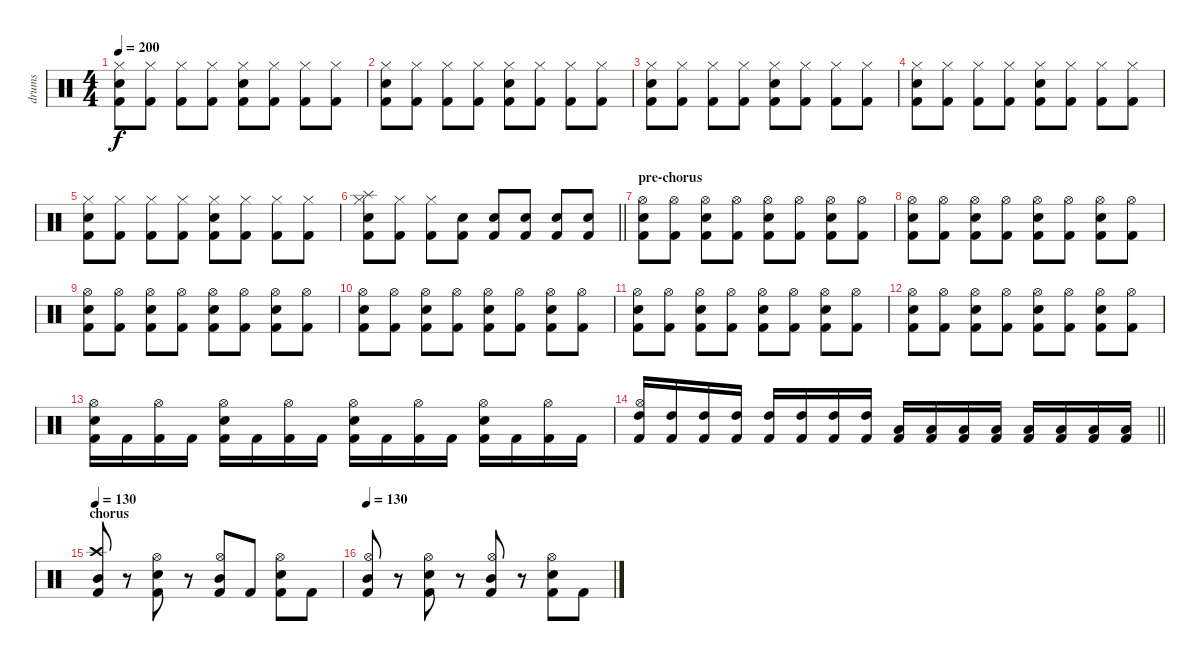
\track ("drums" "drums") {instrument percussion}
\staff {score}
\articulation defaults
\ts (4 4)
\tempo 200
\clef neutral
\ks c
("Hi-Hat (closed)" "Snare (hit) 2" "Kick (hit) 2").8{dy f} ("Hi-Hat (closed)" "Kick (hit) 2").8 ("Hi-Hat (closed)" "Kick (hit) 2").8 ("Hi-Hat (closed)" "Kick (hit) 2").8 ("Hi-Hat (closed)" "Snare (hit) 2" "Kick (hit) 2").8 ("Hi-Hat (closed)" "Kick (hit) 2").8 ("Hi-Hat (closed)" "Kick (hit) 2").8 ("Hi-Hat (closed)" "Kick (hit) 2").8 |
("Hi-Hat (closed)" "Snare (hit) 2" "Kick (hit) 2").8 ("Hi-Hat (closed)" "Kick (hit) 2").8 ("Hi-Hat (closed)" "Kick (hit) 2").8 ("Hi-Hat (closed)" "Kick (hit) 2").8 ("Hi-Hat (closed)" "Snare (hit) 2" "Kick (hit) 2").8 ("Hi-Hat (closed)" "Kick (hit) 2").8 ("Hi-Hat (closed)" "Kick (hit) 2").8 ("Hi-Hat (closed)" "Kick (hit) 2").8 |
("Hi-Hat (closed)" "Snare (hit) 2" "Kick (hit) 2").8 ("Hi-Hat (closed)" "Kick (hit) 2").8 ("Hi-Hat (closed)" "Kick (hit) 2").8 ("Hi-Hat (closed)" "Kick (hit) 2").8 ("Hi-Hat (closed)" "Snare (hit) 2" "Kick (hit) 2").8 ("Hi-Hat (closed)" "Kick (hit) 2").8 ("Hi-Hat (closed)" "Kick (hit) 2").8 ("Hi-Hat (closed)" "Kick (hit) 2").8 |
("Hi-Hat (closed)" "Snare (hit) 2" "Kick (hit) 2").8 ("Hi-Hat (closed)" "Kick (hit) 2").8 ("Hi-Hat (closed)" "Kick (hit) 2").8 ("Hi-Hat (closed)" "Kick (hit) 2").8 ("Hi-Hat (closed)" "Snare (hit) 2" "Kick (hit) 2").8 ("Hi-Hat (closed)" "Kick (hit) 2").8 ("Hi-Hat (closed)" "Kick (hit) 2").8 ("Hi-Hat (closed)" "Kick (hit) 2").8 |
("Hi-Hat (closed)" "Snare (hit) 2" "Kick (hit) 2").8 ("Hi-Hat (closed)" "Kick (hit) 2").8 ("Hi-Hat (closed)" "Kick (hit) 2").8 ("Hi-Hat (closed)" "Kick (hit) 2").8 ("Hi-Hat (closed)" "Snare (hit) 2" "Kick (hit) 2").8 ("Hi-Hat (closed)" "Kick (hit) 2").8 ("Hi-Hat (closed)" "Kick (hit) 2").8 ("Hi-Hat (closed)" "Kick (hit) 2").8 |
\barLineRight lightlight
("Splash (hit)" "Hi-Hat (closed)" "Snare (hit) 2" "Kick (hit) 2").8 ("Hi-Hat (closed)" "Kick (hit) 2").8 ("Hi-Hat (closed)" "Kick (hit) 2").8 ("Snare (hit) 2" "Kick (hit) 2").8 ("Snare (hit) 2" "Kick (hit) 2").8 ("Snare (hit) 2" "Kick (hit) 2").8 ("Snare (hit) 2" "Kick (hit) 2").8 ("Snare (hit) 2" "Kick (hit) 2").8 |
\section ("" "pre-chorus")
("Hi-Hat (open)" "Snare (hit) 2" "Kick (hit) 2").8 ("Hi-Hat (open)" "Kick (hit) 2").8 ("Hi-Hat (open)" "Snare (hit) 2" "Kick (hit) 2").8 ("Hi-Hat (open)" "Kick (hit) 2").8 ("Hi-Hat (open)" "Snare (hit) 2" "Kick (hit) 2").8 ("Hi-Hat (open)" "Kick (hit) 2").8 ("Hi-Hat (open)" "Snare (hit) 2" "Kick (hit) 2").8 ("Hi-Hat (open)" "Kick (hit) 2").8 |
("Hi-Hat (open)" "Snare (hit) 2" "Kick (hit) 2").8 ("Hi-Hat (open)" "Kick (hit) 2").8 ("Hi-Hat (open)" "Snare (hit) 2" "Kick (hit) 2").8 ("Hi-Hat (open)" "Kick (hit) 2").8 ("Hi-Hat (open)" "Snare (hit) 2" "Kick (hit) 2").8 ("Hi-Hat (open)" "Kick (hit) 2").8 ("Hi-Hat (open)" "Snare (hit) 2" "Kick (hit) 2").8 ("Hi-Hat (open)" "Kick (hit) 2").8 |
("Hi-Hat (open)" "Snare (hit) 2" "Kick (hit) 2").8 ("Hi-Hat (open)" "Kick (hit) 2").8 ("Hi-Hat (open)" "Snare (hit) 2" "Kick (hit) 2").8 ("Hi-Hat (open)" "Kick (hit) 2").8 ("Hi-Hat (open)" "Snare (hit) 2" "Kick (hit) 2").8 ("Hi-Hat (open)" "Kick (hit) 2").8 ("Hi-Hat (open)" "Snare (hit) 2" "Kick (hit) 2").8 ("Hi-Hat (open)" "Kick (hit) 2").8 |
("Hi-Hat (open)" "Snare (hit) 2" "Kick (hit) 2").8 ("Hi-Hat (open)" "Kick (hit) 2").8 ("Hi-Hat (open)" "Snare (hit) 2" "Kick (hit) 2").8 ("Hi-Hat (open)" "Kick (hit) 2").8 ("Hi-Hat (open)" "Snare (hit) 2" "Kick (hit) 2").8 ("Hi-Hat (open)" "Kick (hit) 2").8 ("Hi-Hat (open)" "Snare (hit) 2" "Kick (hit) 2").8 ("Hi-Hat (open)" "Kick (hit) 2").8 |
("Hi-Hat (open)" "Snare (hit) 2" "Kick (hit) 2").8 ("Hi-Hat (open)" "Kick (hit) 2").8 ("Hi-Hat (open)" "Snare (hit) 2" "Kick (hit) 2").8 ("Hi-Hat (open)" "Kick (hit) 2").8 ("Hi-Hat (open)" "Snare (hit) 2" "Kick (hit) 2").8 ("Hi-Hat (open)" "Kick (hit) 2").8 ("Hi-Hat (open)" "Snare (hit) 2" "Kick (hit) 2").8 ("Hi-Hat (open)" "Kick (hit) 2").8 |
("Hi-Hat (open)" "Snare (hit) 2" "Kick (hit) 2").8 ("Hi-Hat (open)" "Kick (hit) 2").8 ("Hi-Hat (open)" "Snare (hit) 2" "Kick (hit) 2").8 ("Hi-Hat (open)" "Kick (hit) 2").8 ("Hi-Hat (open)" "Snare (hit) 2" "Kick (hit) 2").8 ("Hi-Hat (open)" "Kick (hit) 2").8 ("Hi-Hat (open)" "Snare (hit) 2" "Kick (hit) 2").8 ("Hi-Hat (open)" "Kick (hit) 2").8 |
("Hi-Hat (open)" "Snare (hit) 2" "Kick (hit) 2").16 "Kick (hit) 2".16 ("Hi-Hat (open)" "Kick (hit) 2").16 "Kick (hit) 2".16 ("Hi-Hat (open)" "Snare (hit) 2" "Kick (hit) 2").16 "Kick (hit) 2".16 ("Hi-Hat (open)" "Kick (hit) 2").16 "Kick (hit) 2".16 ("Hi-Hat (open)" "Snare (hit) 2" "Kick (hit) 2").16 "Kick (hit) 2".16 ("Hi-Hat (open)" "Kick (hit) 2").16 "Kick (hit) 2".16 ("Hi-Hat (open)" "Snare (hit) 2" "Kick (hit) 2").16 "Kick (hit) 2".16 ("Hi-Hat (open)" "Kick (hit) 2").16 "Kick (hit) 2".16 |
\barLineRight lightlight
("Hi-Hat (open)" "High Tom (hit)" "Kick (hit) 2").16 ("High Tom (hit)" "Kick (hit) 2").16 ("High Tom (hit)" "Kick (hit) 2").16 ("High Tom (hit)" "Kick (hit) 2").16 ("High Tom (hit)" "Kick (hit) 2").16 ("High Tom (hit)" "Kick (hit) 2").16 ("High Tom (hit)" "Kick (hit) 2").16 ("High Tom (hit)" "Kick (hit) 2").16 ("Low Tom (hit)" "Kick (hit) 2").16 ("Low Tom (hit)" "Kick (hit) 2").16 ("Low Tom (hit)" "Kick (hit) 2").16 ("Low Tom (hit)" "Kick (hit) 2").16 ("Low Tom (hit)" "Kick (hit) 2").16 ("Low Tom (hit)" "Kick (hit) 2").16 ("Low Tom (hit)" "Kick (hit) 2").16 ("Low Tom (hit)" "Kick (hit) 2").16 |
\section ("" "chorus")
\tempo 130
("Crash high (hit)" "Mid Tom (hit)" "Kick (hit) 2").8 r.8 ("Hi-Hat (open)" "Snare (hit) 2" "Kick (hit) 2").8 r.8 ("Hi-Hat (open)" "Mid Tom (hit)" "Kick (hit) 2").8 "Kick (hit) 2".8 ("Hi-Hat (open)" "Snare (hit) 2" "Kick (hit) 2").8 "Kick (hit) 2".8 |
\tempo 130
("Hi-Hat (open)" "Mid Tom (hit)" "Kick (hit) 2").8 r.8 ("Hi-Hat (open)" "Snare (hit) 2" "Kick (hit) 2").8 r.8 ("Hi-Hat (open)" "Mid Tom (hit)" "Kick (hit) 2").8 r.8 ("Hi-Hat (open)" "Snare (hit) 2" "Kick (hit) 2").8 "Kick (hit) 2".8
